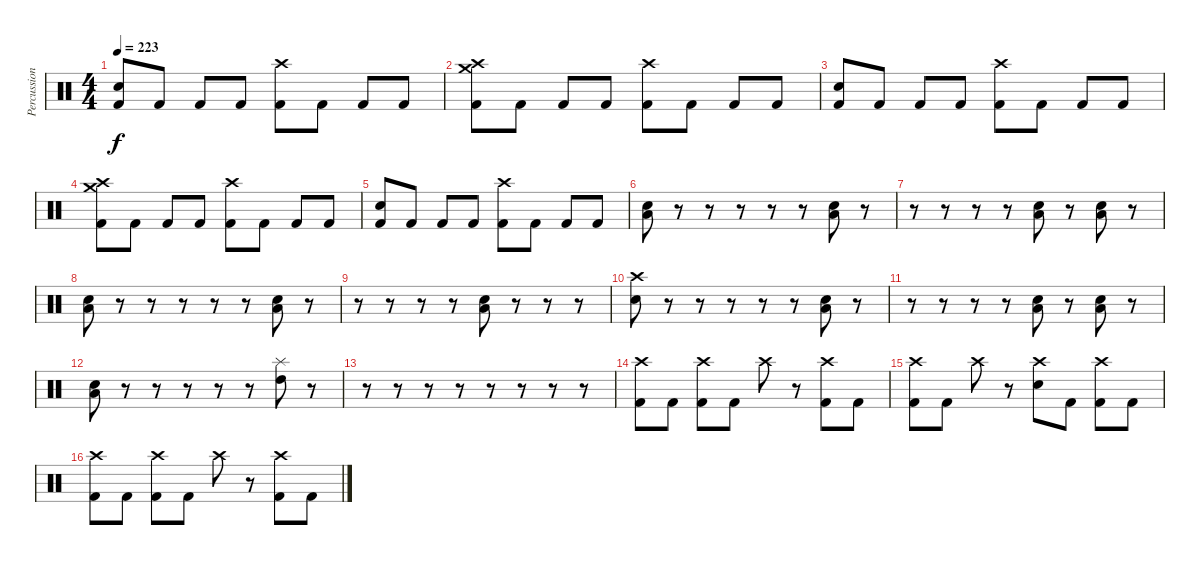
\track ("Percussion" "Percussion") {instrument percussion}
\staff {score}
\articulation defaults
\ts (4 4)
\tempo 223
\clef neutral
\ks c
("Electric Snare (hit)" "Kick (hit) 2").8{dy f} "Kick (hit) 2".8 "Kick (hit) 2".8 "Kick (hit) 2".8 ("Crash high (hit)" "Kick (hit) 2").8 "Kick (hit) 2".8 "Kick (hit) 2".8 "Kick (hit) 2".8 |
("Crash high (hit)" "Crash medium (hit)" "Kick (hit) 2").8 "Kick (hit) 2".8 "Kick (hit) 2".8 "Kick (hit) 2".8 ("Crash high (hit)" "Kick (hit) 2").8 "Kick (hit) 2".8 "Kick (hit) 2".8 "Kick (hit) 2".8 |
("Electric Snare (hit)" "Kick (hit) 2").8 "Kick (hit) 2".8 "Kick (hit) 2".8 "Kick (hit) 2".8 ("Crash high (hit)" "Kick (hit) 2").8 "Kick (hit) 2".8 "Kick (hit) 2".8 "Kick (hit) 2".8 |
("Crash high (hit)" "Crash medium (hit)" "Kick (hit) 2").8 "Kick (hit) 2".8 "Kick (hit) 2".8 "Kick (hit) 2".8 ("Crash high (hit)" "Kick (hit) 2").8 "Kick (hit) 2".8 "Kick (hit) 2".8 "Kick (hit) 2".8 |
("Electric Snare (hit)" "Kick (hit) 2").8 "Kick (hit) 2".8 "Kick (hit) 2".8 "Kick (hit) 2".8 ("Crash high (hit)" "Kick (hit) 2").8 "Kick (hit) 2".8 "Kick (hit) 2".8 "Kick (hit) 2".8 |
("Electric Snare (hit)" "Low Tom (hit)").8 r.8 r.8 r.8 r.8 r.8 ("Electric Snare (hit)" "Low Tom (hit)").8 r.8 |
r.8 r.8 r.8 r.8 ("Electric Snare (hit)" "Low Tom (hit)").8 r.8 ("Electric Snare (hit)" "Low Tom (hit)").8 r.8 |
("Electric Snare (hit)" "Low Tom (hit)").8 r.8 r.8 r.8 r.8 r.8 ("Electric Snare (hit)" "Low Tom (hit)").8 r.8 |
r.8 r.8 r.8 r.8 ("Electric Snare (hit)" "Low Tom (hit)").8 r.8 r.8 r.8 |
("Crash high (hit)" "Electric Snare (hit)").8 r.8 r.8 r.8 r.8 r.8 ("Electric Snare (hit)" "Low Tom (hit)").8 r.8 |
r.8 r.8 r.8 r.8 ("Electric Snare (hit)" "Low Tom (hit)").8 r.8 ("Electric Snare (hit)" "Low Tom (hit)").8 r.8 |
("Electric Snare (hit)" "Low Tom (hit)").8 r.8 r.8 r.8 r.8 r.8 ("Splash (hit)" "High Tom (hit)").8 r.8 |
r.8 r.8 r.8 r.8 r.8 r.8 r.8 r.8 |
("Crash high (hit)" "Kick (hit) 2").8 "Kick (hit) 2".8 ("Crash high (hit)" "Kick (hit) 2").8 "Kick (hit) 2".8 "Crash high (hit)".8 r.8 ("Crash high (hit)" "Kick (hit) 2").8 "Kick (hit) 2".8 |
("Crash high (hit)" "Kick (hit) 2").8 "Kick (hit) 2".8 "Crash high (hit)".8 r.8 ("Crash high (hit)" "Electric Snare (hit)").8 "Kick (hit) 2".8 ("Crash high (hit)" "Kick (hit) 2").8 "Kick (hit) 2".8 |
("Crash high (hit)" "Kick (hit) 2").8 "Kick (hit) 2".8 ("Crash high (hit)" "Kick (hit) 2").8 "Kick (hit) 2".8 "Crash high (hit)".8 r.8 ("Crash high (hit)" "Kick (hit) 2").8 "Kick (hit) 2".8
